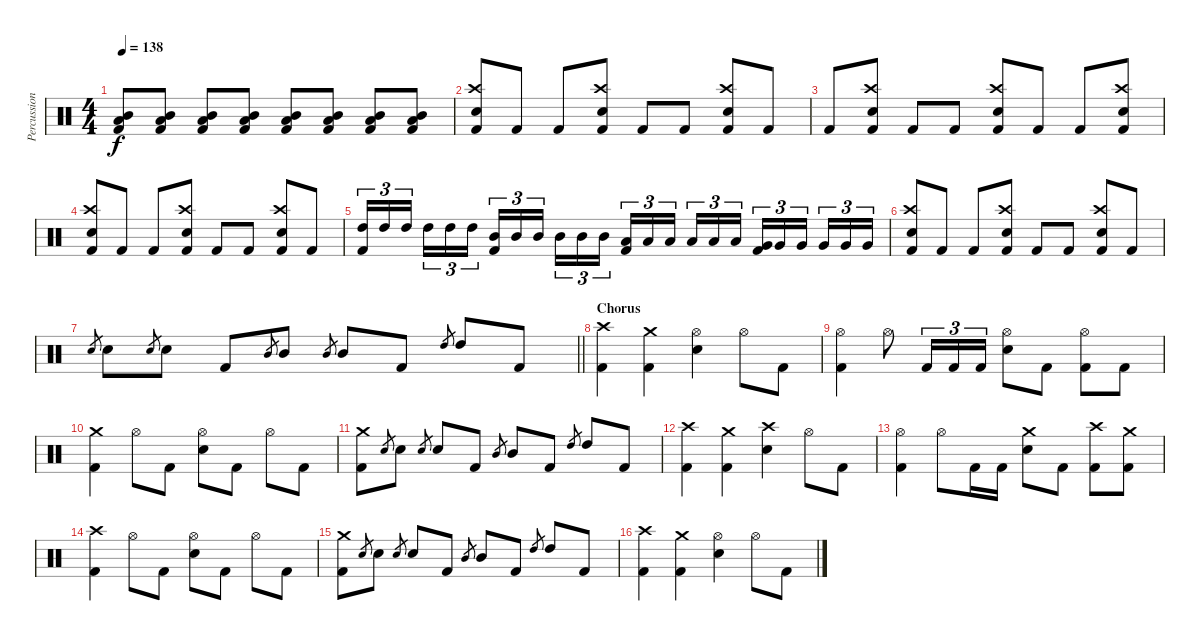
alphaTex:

\track ("Percussion" "Percussion") {instrument percussion}
\staff {score}
\articulation defaults
\ts (4 4)
\tempo 138
\clef neutral
\ks c
("Mid Tom (hit)" "Low Tom (hit)" "Kick (hit) 2").8{dy f} ("Mid Tom (hit)" "Low Tom (hit)" "Kick (hit) 2").8 ("Mid Tom (hit)" "Low Tom (hit)" "Kick (hit) 2").8 ("Mid Tom (hit)" "Low Tom (hit)" "Kick (hit) 2").8 ("Mid Tom (hit)" "Low Tom (hit)" "Kick (hit) 2").8 ("Mid Tom (hit)" "Low Tom (hit)" "Kick (hit) 2").8 ("Mid Tom (hit)" "Low Tom (hit)" "Kick (hit) 2").8 ("Mid Tom (hit)" "Low Tom (hit)" "Kick (hit) 2").8 |
("Crash high (hit)" "Electric Snare (hit)" "Kick (hit) 2").8 "Kick (hit) 2".8 "Kick (hit) 2".8 ("Crash high (hit)" "Electric Snare (hit)" "Kick (hit) 2").8 "Kick (hit) 2".8 "Kick (hit) 2".8 ("Crash high (hit)" "Electric Snare (hit)" "Kick (hit) 2").8 "Kick (hit) 2".8 |
"Kick (hit) 2".8 ("Crash high (hit)" "Electric Snare (hit)" "Kick (hit) 2").8 "Kick (hit) 2".8 "Kick (hit) 2".8 ("Crash high (hit)" "Electric Snare (hit)" "Kick (hit) 2").8 "Kick (hit) 2".8 "Kick (hit) 2".8 ("Crash high (hit)" "Electric Snare (hit)" "Kick (hit) 2").8 |
("Crash high (hit)" "Electric Snare (hit)" "Kick (hit) 2").8 "Kick (hit) 2".8 "Kick (hit) 2".8 ("Crash high (hit)" "Electric Snare (hit)" "Kick (hit) 2").8 "Kick (hit) 2".8 "Kick (hit) 2".8 ("Crash high (hit)" "Electric Snare (hit)" "Kick (hit) 2").8 "Kick (hit) 2".8 |
("High Tom (hit)" "Kick (hit) 2").16{tu (3 2)} "High Tom (hit)".16{tu (3 2)} "High Tom (hit)".16{tu (3 2) beam splitsecondary} "High Tom (hit)".16{tu (3 2)} "High Tom (hit)".16{tu (3 2)} "High Tom (hit)".16{tu (3 2)} ("Mid Tom (hit)" "Kick (hit) 2").16{tu (3 2)} "Mid Tom (hit)".16{tu (3 2)} "Mid Tom (hit)".16{tu (3 2) beam splitsecondary} "Mid Tom (hit)".16{tu (3 2)} "Mid Tom (hit)".16{tu (3 2)} "Mid Tom (hit)".16{tu (3 2)} ("Low Tom (hit)" "Kick (hit) 2").16{tu (3 2)} "Low Tom (hit)".16{tu (3 2)} "Low Tom (hit)".16{tu (3 2) beam splitsecondary} "Low Tom (hit)".16{tu (3 2)} "Low Tom (hit)".16{tu (3 2)} "Low Tom (hit)".16{tu (3 2)} ("Very Low Tom (hit)" "Kick (hit) 2").16{tu (3 2)} "Very Low Tom (hit)".16{tu (3 2)} "Very Low Tom (hit)".16{tu (3 2) beam splitsecondary} "Very Low Tom (hit)".16{tu (3 2)} "Very Low Tom (hit)".16{tu (3 2)} "Very Low Tom (hit)".16{tu (3 2)} |
("Crash high (hit)" "Electric Snare (hit)" "Kick (hit) 2").8 "Kick (hit) 2".8 "Kick (hit) 2".8 ("Crash high (hit)" "Electric Snare (hit)" "Kick (hit) 2").8 "Kick (hit) 2".8 "Kick (hit) 2".8 ("Crash high (hit)" "Electric Snare (hit)" "Kick (hit) 2").8 "Kick (hit) 2".8 |
\barLineRight lightlight "Electric Snare (hit)".8{gr} "Electric Snare (hit)".8 "Electric Snare (hit)".8{gr} "Electric Snare (hit)".8 "Kick (hit) 2".8 "Mid Tom (hit)".8{gr} "Mid Tom (hit)".8 "Mid Tom (hit)".8{gr} "Mid Tom (hit)".8 "Kick (hit) 2".8 "High Tom (hit)".8{gr} "High Tom (hit)".8 "Kick (hit) 2".8
|
\section ("" "Chorus")
("Crash high (hit)" "Kick (hit) 2").4 ("Crash medium (hit)" "Kick (hit) 2").4 ("Hi-Hat (open)" "Electric Snare (hit)").4 "Hi-Hat (open)".8 "Kick (hit) 2".8 |
("Hi-Hat (open)" "Kick (hit) 2").4 "Hi-Hat (open)".8 "Kick (hit) 2".16{tu (3 2)} "Kick (hit) 2".16{tu (3 2)} "Kick (hit) 2".16{tu (3 2)} ("Hi-Hat (open)" "Electric Snare (hit)").8 "Kick (hit) 2".8 ("Hi-Hat (open)" "Kick (hit) 2").8 "Kick (hit) 2".8 |
("Crash medium (hit)" "Kick (hit) 2").4 "Hi-Hat (open)".8 "Kick (hit) 2".8 ("Hi-Hat (open)" "Electric Snare (hit)").8 "Kick (hit) 2".8 "Hi-Hat (open)".8 "Kick (hit) 2".8 |
("Crash medium (hit)" "Kick (hit) 2").8 "Electric Snare (hit)".8{gr} "Electric Snare (hit)".8 "Electric Snare (hit)".8{gr} "Electric Snare (hit)".8 "Kick (hit) 2".8 "Mid Tom (hit)".8{gr} "Mid Tom (hit)".8 "Kick (hit) 2".8 "High Tom (hit)".8{gr} "High Tom (hit)".8 "Kick (hit) 2".8 |
("Crash high (hit)" "Kick (hit) 2").4 ("Crash medium (hit)" "Kick (hit) 2").4 ("Crash high (hit)" "Electric Snare (hit)").4 "Hi-Hat (open)".8 "Kick (hit) 2".8 |
("Hi-Hat (open)" "Kick (hit) 2").4 "Hi-Hat (open)".8 "Kick (hit) 2".16 "Kick (hit) 2".16 ("Crash medium (hit)" "Electric Snare (hit)").8 "Kick (hit) 2".8 ("Crash high (hit)" "Kick (hit) 2").8 ("Crash medium (hit)" "Kick (hit) 2").8 |
("Crash high (hit)" "Kick (hit) 2").4 "Hi-Hat (open)".8 "Kick (hit) 2".8 ("Hi-Hat (open)" "Electric Snare (hit)").8 "Kick (hit) 2".8 "Hi-Hat (open)".8 "Kick (hit) 2".8 |
("Crash medium (hit)" "Kick (hit) 2").8 "Electric Snare (hit)".8{gr} "Electric Snare (hit)".8 "Electric Snare (hit)".8{gr} "Electric Snare (hit)".8 "Kick (hit) 2".8 "Mid Tom (hit)".8{gr} "Mid Tom (hit)".8 "Kick (hit) 2".8 "High Tom (hit)".8{gr} "High Tom (hit)".8 "Kick (hit) 2".8 |
("Crash high (hit)" "Kick (hit) 2").4 ("Crash medium (hit)" "Kick (hit) 2").4 ("Hi-Hat (open)" "Electric Snare (hit)").4 "Hi-Hat (open)".8 "Kick (hit) 2".8
